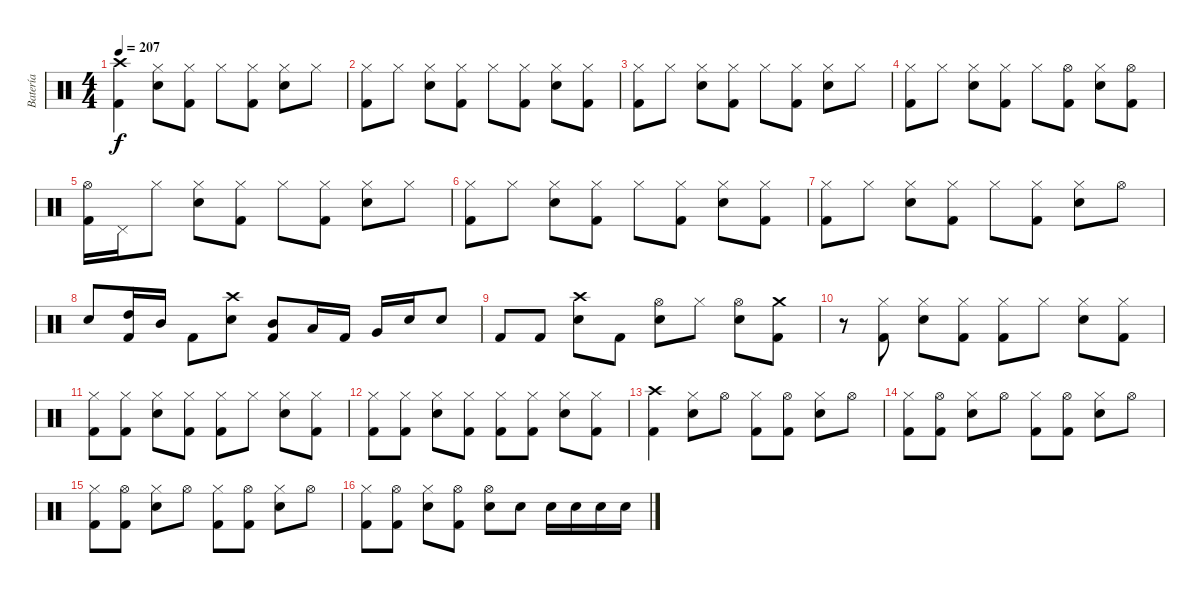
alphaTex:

\track ("Batería" "Batería") {instrument percussion}
\staff {score}
\articulation defaults
\ts (4 4)
\tempo 207
\clef neutral
\ks c
("Crash high (hit)" "Kick (hit) 2").4{dy f} ("Snare (hit) 2" "Hi-Hat (closed)").8 ("Hi-Hat (closed)" "Kick (hit) 2").8 "Hi-Hat (closed)".8 ("Hi-Hat (closed)" "Kick (hit) 2").8 ("Snare (hit) 2" "Hi-Hat (closed)").8 "Hi-Hat (closed)".8 |
("Hi-Hat (closed)" "Kick (hit) 2").8 "Hi-Hat (closed)".8 ("Snare (hit) 2" "Hi-Hat (closed)").8 ("Hi-Hat (closed)" "Kick (hit) 2").8 "Hi-Hat (closed)".8 ("Hi-Hat (closed)" "Kick (hit) 2").8 ("Snare (hit) 2" "Hi-Hat (closed)").8 ("Hi-Hat (closed)" "Kick (hit) 2").8 |
("Hi-Hat (closed)" "Kick (hit) 2").8 "Hi-Hat (closed)".8 ("Snare (hit) 2" "Hi-Hat (closed)").8 ("Hi-Hat (closed)" "Kick (hit) 2").8 "Hi-Hat (closed)".8 ("Hi-Hat (closed)" "Kick (hit) 2").8 ("Snare (hit) 2" "Hi-Hat (closed)").8 "Hi-Hat (closed)".8 |
("Hi-Hat (closed)" "Kick (hit) 2").8 "Hi-Hat (closed)".8 ("Snare (hit) 2" "Hi-Hat (closed)").8 ("Hi-Hat (closed)" "Kick (hit) 2").8 "Hi-Hat (closed)".8 ("Hi-Hat (open)" "Kick (hit) 2").8 ("Snare (hit) 2" "Hi-Hat (closed)").8 ("Hi-Hat (open)" "Kick (hit) 2").8 |
("Hi-Hat (open)" "Kick (hit) 2").16 "Pedal Hi-Hat (hit)".16 "Hi-Hat (closed)".8 ("Snare (hit) 2" "Hi-Hat (closed)").8 ("Hi-Hat (closed)" "Kick (hit) 2").8 "Hi-Hat (closed)".8 ("Hi-Hat (closed)" "Kick (hit) 2").8 ("Snare (hit) 2" "Hi-Hat (closed)").8 "Hi-Hat (closed)".8 |
("Hi-Hat (closed)" "Kick (hit) 2").8 "Hi-Hat (closed)".8 ("Snare (hit) 2" "Hi-Hat (closed)").8 ("Hi-Hat (closed)" "Kick (hit) 2").8 "Hi-Hat (closed)".8 ("Hi-Hat (closed)" "Kick (hit) 2").8 ("Snare (hit) 2" "Hi-Hat (closed)").8 ("Hi-Hat (closed)" "Kick (hit) 2").8 |
("Hi-Hat (closed)" "Kick (hit) 2").8 "Hi-Hat (closed)".8 ("Snare (hit) 2" "Hi-Hat (closed)").8 ("Hi-Hat (closed)" "Kick (hit) 2").8 "Hi-Hat (closed)".8 ("Hi-Hat (closed)" "Kick (hit) 2").8 ("Snare (hit) 2" "Hi-Hat (closed)").8 "Hi-Hat (open)".8 |
"Snare (hit) 2".8 ("High Tom (hit)" "Kick (hit) 2").16 "Mid Tom (hit)".16 "Kick (hit) 2".8 ("Crash high (hit)" "Snare (hit) 2").8 ("Mid Tom (hit)" "Kick (hit) 2").8 "Low Tom (hit)".16 "Kick (hit) 2".16 "Very Low Tom (hit)".16 "Snare (hit) 2".16 "Snare (hit) 2".8 |
"Kick (hit) 2".8 "Kick (hit) 2".8 ("Crash high (hit)" "Snare (hit) 2").8 "Kick (hit) 2".8 ("Snare (hit) 2" "Hi-Hat (open)").8 "Hi-Hat (closed)".8 ("Snare (hit) 2" "Hi-Hat (open)").8 ("Crash medium (hit)" "Kick (hit) 2").8 |
r.8 ("Hi-Hat (closed)" "Kick (hit) 2").8 ("Snare (hit) 2" "Hi-Hat (closed)").8 ("Hi-Hat (closed)" "Kick (hit) 2").8 ("Hi-Hat (closed)" "Kick (hit) 2").8 "Hi-Hat (closed)".8 ("Snare (hit) 2" "Hi-Hat (closed)").8 ("Hi-Hat (closed)" "Kick (hit) 2").8 |
("Hi-Hat (closed)" "Kick (hit) 2").8 ("Hi-Hat (closed)" "Kick (hit) 2").8 ("Snare (hit) 2" "Hi-Hat (closed)").8 ("Hi-Hat (closed)" "Kick (hit) 2").8 ("Hi-Hat (closed)" "Kick (hit) 2").8 "Hi-Hat (closed)".8 ("Snare (hit) 2" "Hi-Hat (closed)").8 ("Hi-Hat (closed)" "Kick (hit) 2").8 |
("Hi-Hat (closed)" "Kick (hit) 2").8 ("Hi-Hat (closed)" "Kick (hit) 2").8 ("Snare (hit) 2" "Hi-Hat (closed)").8 ("Hi-Hat (closed)" "Kick (hit) 2").8 ("Hi-Hat (closed)" "Kick (hit) 2").8 ("Hi-Hat (closed)" "Kick (hit) 2").8 ("Snare (hit) 2" "Hi-Hat (closed)").8 ("Hi-Hat (closed)" "Kick (hit) 2").8 |
("Crash high (hit)" "Kick (hit) 2").4 ("Snare (hit) 2" "Hi-Hat (closed)").8 "Hi-Hat (open)".8 ("Hi-Hat (closed)" "Kick (hit) 2").8 ("Hi-Hat (open)" "Kick (hit) 2").8 ("Snare (hit) 2" "Hi-Hat (closed)").8 "Hi-Hat (open)".8 |
("Hi-Hat (closed)" "Kick (hit) 2").8 ("Hi-Hat (open)" "Kick (hit) 2").8 ("Snare (hit) 2" "Hi-Hat (closed)").8 "Hi-Hat (open)".8 ("Hi-Hat (closed)" "Kick (hit) 2").8 ("Hi-Hat (open)" "Kick (hit) 2").8 ("Snare (hit) 2" "Hi-Hat (closed)").8 "Hi-Hat (open)".8 |
("Hi-Hat (closed)" "Kick (hit) 2").8 ("Hi-Hat (open)" "Kick (hit) 2").8 ("Snare (hit) 2" "Hi-Hat (closed)").8 "Hi-Hat (open)".8 ("Hi-Hat (closed)" "Kick (hit) 2").8 ("Hi-Hat (open)" "Kick (hit) 2").8 ("Snare (hit) 2" "Hi-Hat (closed)").8 "Hi-Hat (open)".8 |
("Hi-Hat (closed)" "Kick (hit) 2").8 ("Hi-Hat (open)" "Kick (hit) 2").8 ("Snare (hit) 2" "Hi-Hat (closed)").8 ("Hi-Hat (open)" "Kick (hit) 2").8 ("Snare (hit) 2" "Hi-Hat (open)").8 "Snare (hit) 2".8 "Snare (hit) 2".16 "Snare (hit) 2".16 "Snare (hit) 2".16 "Snare (hit) 2".16
